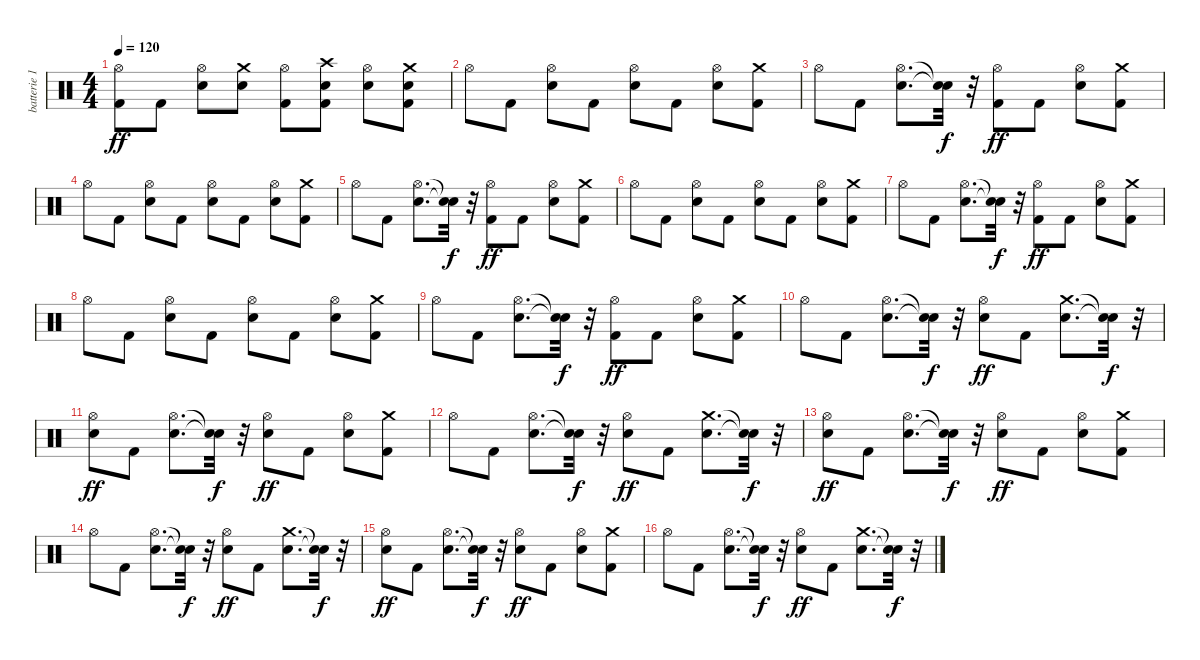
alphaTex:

\track ("batterie 1" "batterie 1") {instrument percussion}
\staff {score}
\articulation defaults
\ts (4 4)
\tempo 120
\clef neutral
\ks c
("Kick (hit) 2" "Hi-Hat (open)").8{dy ff} "Kick (hit) 2".8 ("Electric Snare (hit)" "Hi-Hat (open)").8 ("Electric Snare (hit)" "Crash medium (hit)").8 ("Kick (hit) 2" "Hi-Hat (open)").8 ("Kick (hit) 2" "Electric Snare (hit)" "Crash high (hit)").8 ("Electric Snare (hit)" "Hi-Hat (open)").8 ("Kick (hit) 2" "Electric Snare (hit)" "Crash medium (hit)").8 |
"Hi-Hat (open)".8 "Kick (hit) 2".8 ("Electric Snare (hit)" "Hi-Hat (open)").8 "Kick (hit) 2".8 ("Electric Snare (hit)" "Hi-Hat (open)").8 "Kick (hit) 2".8 ("Electric Snare (hit)" "Hi-Hat (open)").8 ("Kick (hit) 2" "Crash medium (hit)").8 |
"Hi-Hat (open)".8 "Kick (hit) 2".8 ("Electric Snare (hit)" "Hi-Hat (open)").8{d} ("Snare (hit)"{t} "Snare (hit)"{t}).32{dy f} r.32 ("Kick (hit) 2" "Hi-Hat (open)").8{dy ff} "Kick (hit) 2".8 ("Electric Snare (hit)" "Hi-Hat (open)").8 ("Kick (hit) 2" "Crash medium (hit)").8 |
"Hi-Hat (open)".8 "Kick (hit) 2".8 ("Electric Snare (hit)" "Hi-Hat (open)").8 "Kick (hit) 2".8 ("Electric Snare (hit)" "Hi-Hat (open)").8 "Kick (hit) 2".8 ("Electric Snare (hit)" "Hi-Hat (open)").8 ("Kick (hit) 2" "Crash medium (hit)").8 |
"Hi-Hat (open)".8 "Kick (hit) 2".8 ("Electric Snare (hit)" "Hi-Hat (open)").8{d} ("Snare (hit)"{t} "Snare (hit)"{t}).32{dy f} r.32 ("Kick (hit) 2" "Hi-Hat (open)").8{dy ff} "Kick (hit) 2".8 ("Electric Snare (hit)" "Hi-Hat (open)").8 ("Kick (hit) 2" "Crash medium (hit)").8 |
"Hi-Hat (open)".8 "Kick (hit) 2".8 ("Electric Snare (hit)" "Hi-Hat (open)").8 "Kick (hit) 2".8 ("Electric Snare (hit)" "Hi-Hat (open)").8 "Kick (hit) 2".8 ("Electric Snare (hit)" "Hi-Hat (open)").8 ("Kick (hit) 2" "Crash medium (hit)").8 |
"Hi-Hat (open)".8 "Kick (hit) 2".8 ("Electric Snare (hit)" "Hi-Hat (open)").8{d} ("Snare (hit)"{t} "Snare (hit)"{t}).32{dy f} r.32 ("Kick (hit) 2" "Hi-Hat (open)").8{dy ff} "Kick (hit) 2".8 ("Electric Snare (hit)" "Hi-Hat (open)").8 ("Kick (hit) 2" "Crash medium (hit)").8 |
"Hi-Hat (open)".8 "Kick (hit) 2".8 ("Electric Snare (hit)" "Hi-Hat (open)").8 "Kick (hit) 2".8 ("Electric Snare (hit)" "Hi-Hat (open)").8 "Kick (hit) 2".8 ("Electric Snare (hit)" "Hi-Hat (open)").8 ("Kick (hit) 2" "Crash medium (hit)").8 |
"Hi-Hat (open)".8 "Kick (hit) 2".8 ("Electric Snare (hit)" "Hi-Hat (open)").8{d} ("Snare (hit)"{t} "Snare (hit)"{t}).32{dy f} r.32 ("Kick (hit) 2" "Hi-Hat (open)").8{dy ff} "Kick (hit) 2".8 ("Electric Snare (hit)" "Hi-Hat (open)").8 ("Kick (hit) 2" "Crash medium (hit)").8 |
"Hi-Hat (open)".8 "Kick (hit) 2".8 ("Electric Snare (hit)" "Hi-Hat (open)").8{d} ("Snare (hit)"{t} "Snare (hit)"{t}).32{dy f} r.32 ("Electric Snare (hit)" "Hi-Hat (open)").8{dy ff} "Kick (hit) 2".8 ("Electric Snare (hit)" "Crash medium (hit)").8{d} ("Snare (hit)"{t} "Snare (hit)"{t}).32{dy f} r.32 |
("Electric Snare (hit)" "Hi-Hat (open)").8{dy ff} "Kick (hit) 2".8 ("Electric Snare (hit)" "Hi-Hat (open)").8{d} ("Snare (hit)"{t} "Snare (hit)"{t}).32{dy f} r.32 ("Electric Snare (hit)" "Hi-Hat (open)").8{dy ff} "Kick (hit) 2".8 ("Electric Snare (hit)" "Hi-Hat (open)").8 ("Kick (hit) 2" "Crash medium (hit)").8 |
"Hi-Hat (open)".8 "Kick (hit) 2".8 ("Electric Snare (hit)" "Hi-Hat (open)").8{d} ("Snare (hit)"{t} "Snare (hit)"{t}).32{dy f} r.32 ("Electric Snare (hit)" "Hi-Hat (open)").8{dy ff} "Kick (hit) 2".8 ("Electric Snare (hit)" "Crash medium (hit)").8{d} ("Snare (hit)"{t} "Snare (hit)"{t}).32{dy f} r.32 |
("Electric Snare (hit)" "Hi-Hat (open)").8{dy ff} "Kick (hit) 2".8 ("Electric Snare (hit)" "Hi-Hat (open)").8{d} ("Snare (hit)"{t} "Snare (hit)"{t}).32{dy f} r.32 ("Electric Snare (hit)" "Hi-Hat (open)").8{dy ff} "Kick (hit) 2".8 ("Electric Snare (hit)" "Hi-Hat (open)").8 ("Kick (hit) 2" "Crash medium (hit)").8 |
"Hi-Hat (open)".8 "Kick (hit) 2".8 ("Electric Snare (hit)" "Hi-Hat (open)").8{d} ("Snare (hit)"{t} "Snare (hit)"{t}).32{dy f} r.32 ("Electric Snare (hit)" "Hi-Hat (open)").8{dy ff} "Kick (hit) 2".8 ("Electric Snare (hit)" "Crash medium (hit)").8{d} ("Snare (hit)"{t} "Snare (hit)"{t}).32{dy f} r.32 |
("Electric Snare (hit)" "Hi-Hat (open)").8{dy ff} "Kick (hit) 2".8 ("Electric Snare (hit)" "Hi-Hat (open)").8{d} ("Snare (hit)"{t} "Snare (hit)"{t}).32{dy f} r.32 ("Electric Snare (hit)" "Hi-Hat (open)").8{dy ff} "Kick (hit) 2".8 ("Electric Snare (hit)" "Hi-Hat (open)").8 ("Kick (hit) 2" "Crash medium (hit)").8 |
"Hi-Hat (open)".8 "Kick (hit) 2".8 ("Electric Snare (hit)" "Hi-Hat (open)").8{d} ("Snare (hit)"{t} "Snare (hit)"{t}).32{dy f} r.32 ("Electric Snare (hit)" "Hi-Hat (open)").8{dy ff} "Kick (hit) 2".8 ("Electric Snare (hit)" "Crash medium (hit)").8{d} ("Snare (hit)"{t} "Snare (hit)"{t}).32{dy f} r.32
